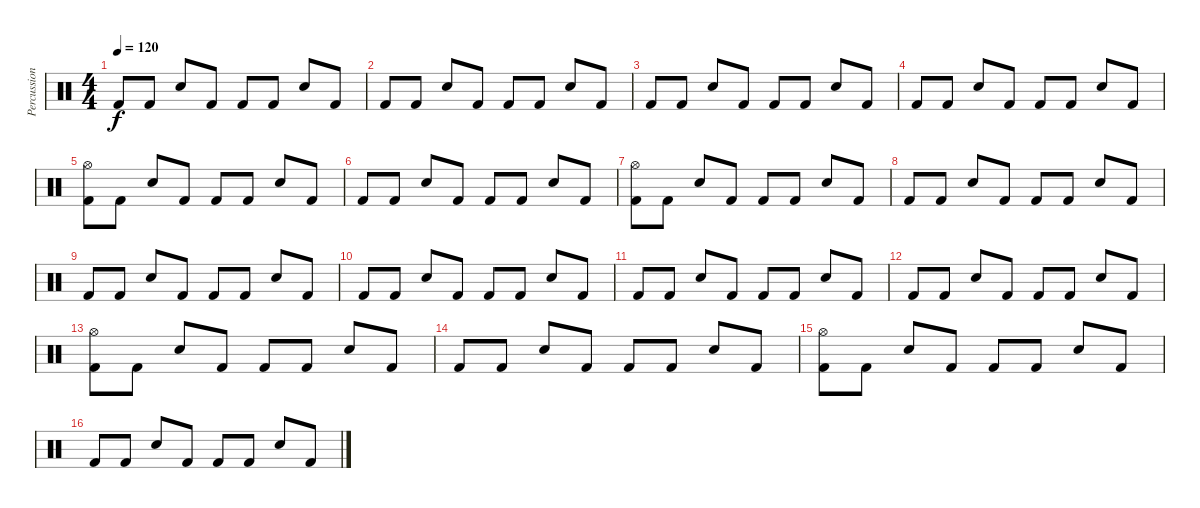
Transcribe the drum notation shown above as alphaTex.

\track ("Percussion" "Percussion") {instrument percussion}
\staff {score}
\articulation defaults
\ts (4 4)
\tempo 120
\clef neutral
\ks c "Kick (hit) 2".8{dy f} "Kick (hit) 2".8 "Electric Snare (hit)".8 "Kick (hit) 2".8 "Kick (hit) 2".8 "Kick (hit) 2".8 "Electric Snare (hit)".8 "Kick (hit) 2".8
|
"Kick (hit) 2".8 "Kick (hit) 2".8 "Electric Snare (hit)".8 "Kick (hit) 2".8 "Kick (hit) 2".8 "Kick (hit) 2".8 "Electric Snare (hit)".8 "Kick (hit) 2".8 |
"Kick (hit) 2".8 "Kick (hit) 2".8 "Electric Snare (hit)".8 "Kick (hit) 2".8 "Kick (hit) 2".8 "Kick (hit) 2".8 "Electric Snare (hit)".8 "Kick (hit) 2".8 |
"Kick (hit) 2".8 "Kick (hit) 2".8 "Electric Snare (hit)".8 "Kick (hit) 2".8 "Kick (hit) 2".8 "Kick (hit) 2".8 "Electric Snare (hit)".8 "Kick (hit) 2".8 |
("Kick (hit) 2" "Hi-Hat (open)").8 "Kick (hit) 2".8 "Electric Snare (hit)".8 "Kick (hit) 2".8 "Kick (hit) 2".8 "Kick (hit) 2".8 "Electric Snare (hit)".8 "Kick (hit) 2".8 |
"Kick (hit) 2".8 "Kick (hit) 2".8 "Electric Snare (hit)".8 "Kick (hit) 2".8 "Kick (hit) 2".8 "Kick (hit) 2".8 "Electric Snare (hit)".8 "Kick (hit) 2".8 |
("Kick (hit) 2" "Hi-Hat (open)").8 "Kick (hit) 2".8 "Electric Snare (hit)".8 "Kick (hit) 2".8 "Kick (hit) 2".8 "Kick (hit) 2".8 "Electric Snare (hit)".8 "Kick (hit) 2".8 |
"Kick (hit) 2".8 "Kick (hit) 2".8 "Electric Snare (hit)".8 "Kick (hit) 2".8 "Kick (hit) 2".8 "Kick (hit) 2".8 "Electric Snare (hit)".8 "Kick (hit) 2".8 |
"Kick (hit) 2".8 "Kick (hit) 2".8 "Electric Snare (hit)".8 "Kick (hit) 2".8 "Kick (hit) 2".8 "Kick (hit) 2".8 "Electric Snare (hit)".8 "Kick (hit) 2".8 |
"Kick (hit) 2".8 "Kick (hit) 2".8 "Electric Snare (hit)".8 "Kick (hit) 2".8 "Kick (hit) 2".8 "Kick (hit) 2".8 "Electric Snare (hit)".8 "Kick (hit) 2".8 |
"Kick (hit) 2".8 "Kick (hit) 2".8 "Electric Snare (hit)".8 "Kick (hit) 2".8 "Kick (hit) 2".8 "Kick (hit) 2".8 "Electric Snare (hit)".8 "Kick (hit) 2".8 |
"Kick (hit) 2".8 "Kick (hit) 2".8 "Electric Snare (hit)".8 "Kick (hit) 2".8 "Kick (hit) 2".8 "Kick (hit) 2".8 "Electric Snare (hit)".8 "Kick (hit) 2".8 |
("Kick (hit) 2" "Hi-Hat (open)").8 "Kick (hit) 2".8 "Electric Snare (hit)".8 "Kick (hit) 2".8 "Kick (hit) 2".8 "Kick (hit) 2".8 "Electric Snare (hit)".8 "Kick (hit) 2".8 |
"Kick (hit) 2".8 "Kick (hit) 2".8 "Electric Snare (hit)".8 "Kick (hit) 2".8 "Kick (hit) 2".8 "Kick (hit) 2".8 "Electric Snare (hit)".8 "Kick (hit) 2".8 |
("Kick (hit) 2" "Hi-Hat (open)").8 "Kick (hit) 2".8 "Electric Snare (hit)".8 "Kick (hit) 2".8 "Kick (hit) 2".8 "Kick (hit) 2".8 "Electric Snare (hit)".8 "Kick (hit) 2".8 |
"Kick (hit) 2".8 "Kick (hit) 2".8 "Electric Snare (hit)".8 "Kick (hit) 2".8 "Kick (hit) 2".8 "Kick (hit) 2".8 "Electric Snare (hit)".8 "Kick (hit) 2".8
